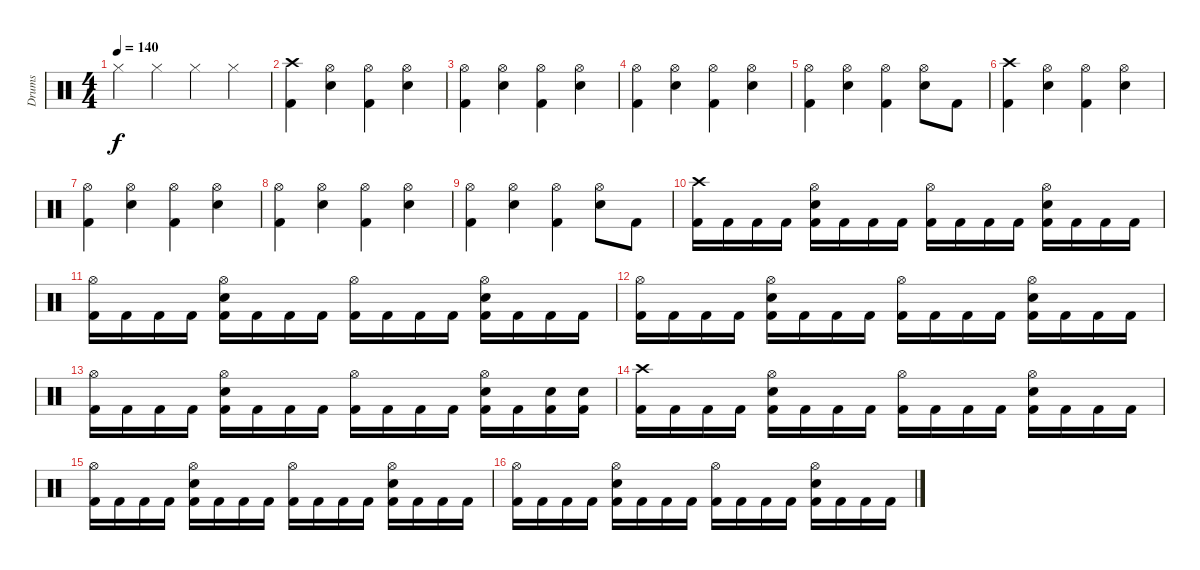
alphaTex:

\track ("Drums" "Drums") {instrument percussion}
\staff {score}
\articulation defaults
\ts (4 4)
\tempo 140
\clef neutral
\ks c "Hi-Hat (closed)".4{dy f} "Hi-Hat (closed)".4 "Hi-Hat (closed)".4 "Hi-Hat (closed)".4
|
("Kick (hit) 2" "Crash high (hit)").4 ("Electric Snare (hit)" "Hi-Hat (open)").4 ("Kick (hit) 2" "Hi-Hat (open)").4 ("Electric Snare (hit)" "Hi-Hat (open)").4 |
("Kick (hit) 2" "Hi-Hat (open)").4 ("Electric Snare (hit)" "Hi-Hat (open)").4 ("Kick (hit) 2" "Hi-Hat (open)").4 ("Electric Snare (hit)" "Hi-Hat (open)").4 |
("Kick (hit) 2" "Hi-Hat (open)").4 ("Electric Snare (hit)" "Hi-Hat (open)").4 ("Kick (hit) 2" "Hi-Hat (open)").4 ("Electric Snare (hit)" "Hi-Hat (open)").4 |
("Kick (hit) 2" "Hi-Hat (open)").4 ("Electric Snare (hit)" "Hi-Hat (open)").4 ("Kick (hit) 2" "Hi-Hat (open)").4 ("Electric Snare (hit)" "Hi-Hat (open)").8 "Kick (hit) 2".8 |
("Kick (hit) 2" "Crash high (hit)").4 ("Electric Snare (hit)" "Hi-Hat (open)").4 ("Kick (hit) 2" "Hi-Hat (open)").4 ("Electric Snare (hit)" "Hi-Hat (open)").4 |
("Kick (hit) 2" "Hi-Hat (open)").4 ("Electric Snare (hit)" "Hi-Hat (open)").4 ("Kick (hit) 2" "Hi-Hat (open)").4 ("Electric Snare (hit)" "Hi-Hat (open)").4 |
("Kick (hit) 2" "Hi-Hat (open)").4 ("Electric Snare (hit)" "Hi-Hat (open)").4 ("Kick (hit) 2" "Hi-Hat (open)").4 ("Electric Snare (hit)" "Hi-Hat (open)").4 |
("Kick (hit) 2" "Hi-Hat (open)").4 ("Electric Snare (hit)" "Hi-Hat (open)").4 ("Kick (hit) 2" "Hi-Hat (open)").4 ("Electric Snare (hit)" "Hi-Hat (open)").8 "Kick (hit) 2".8 |
("Kick (hit) 2" "Crash high (hit)").16 "Kick (hit) 2".16 "Kick (hit) 2".16 "Kick (hit) 2".16 ("Kick (hit) 2" "Electric Snare (hit)" "Hi-Hat (open)").16 "Kick (hit) 2".16 "Kick (hit) 2".16 "Kick (hit) 2".16 ("Kick (hit) 2" "Hi-Hat (open)").16 "Kick (hit) 2".16 "Kick (hit) 2".16 "Kick (hit) 2".16 ("Kick (hit) 2" "Electric Snare (hit)" "Hi-Hat (open)").16 "Kick (hit) 2".16 "Kick (hit) 2".16 "Kick (hit) 2".16 |
("Kick (hit) 2" "Hi-Hat (open)").16 "Kick (hit) 2".16 "Kick (hit) 2".16 "Kick (hit) 2".16 ("Kick (hit) 2" "Electric Snare (hit)" "Hi-Hat (open)").16 "Kick (hit) 2".16 "Kick (hit) 2".16 "Kick (hit) 2".16 ("Kick (hit) 2" "Hi-Hat (open)").16 "Kick (hit) 2".16 "Kick (hit) 2".16 "Kick (hit) 2".16 ("Kick (hit) 2" "Electric Snare (hit)" "Hi-Hat (open)").16 "Kick (hit) 2".16 "Kick (hit) 2".16 "Kick (hit) 2".16 |
("Kick (hit) 2" "Hi-Hat (open)").16 "Kick (hit) 2".16 "Kick (hit) 2".16 "Kick (hit) 2".16 ("Kick (hit) 2" "Electric Snare (hit)" "Hi-Hat (open)").16 "Kick (hit) 2".16 "Kick (hit) 2".16 "Kick (hit) 2".16 ("Kick (hit) 2" "Hi-Hat (open)").16 "Kick (hit) 2".16 "Kick (hit) 2".16 "Kick (hit) 2".16 ("Kick (hit) 2" "Electric Snare (hit)" "Hi-Hat (open)").16 "Kick (hit) 2".16 "Kick (hit) 2".16 "Kick (hit) 2".16 |
("Kick (hit) 2" "Hi-Hat (open)").16 "Kick (hit) 2".16 "Kick (hit) 2".16 "Kick (hit) 2".16 ("Kick (hit) 2" "Electric Snare (hit)" "Hi-Hat (open)").16 "Kick (hit) 2".16 "Kick (hit) 2".16 "Kick (hit) 2".16 ("Kick (hit) 2" "Hi-Hat (open)").16 "Kick (hit) 2".16 "Kick (hit) 2".16 "Kick (hit) 2".16 ("Kick (hit) 2" "Electric Snare (hit)" "Hi-Hat (open)").16 "Kick (hit) 2".16 ("Kick (hit) 2" "Electric Snare (hit)").16 ("Kick (hit) 2" "Electric Snare (hit)").16 |
("Kick (hit) 2" "Crash high (hit)").16 "Kick (hit) 2".16 "Kick (hit) 2".16 "Kick (hit) 2".16 ("Kick (hit) 2" "Electric Snare (hit)" "Hi-Hat (open)").16 "Kick (hit) 2".16 "Kick (hit) 2".16 "Kick (hit) 2".16 ("Kick (hit) 2" "Hi-Hat (open)").16 "Kick (hit) 2".16 "Kick (hit) 2".16 "Kick (hit) 2".16 ("Kick (hit) 2" "Electric Snare (hit)" "Hi-Hat (open)").16 "Kick (hit) 2".16 "Kick (hit) 2".16 "Kick (hit) 2".16 |
("Kick (hit) 2" "Hi-Hat (open)").16 "Kick (hit) 2".16 "Kick (hit) 2".16 "Kick (hit) 2".16 ("Kick (hit) 2" "Electric Snare (hit)" "Hi-Hat (open)").16 "Kick (hit) 2".16 "Kick (hit) 2".16 "Kick (hit) 2".16 ("Kick (hit) 2" "Hi-Hat (open)").16 "Kick (hit) 2".16 "Kick (hit) 2".16 "Kick (hit) 2".16 ("Kick (hit) 2" "Electric Snare (hit)" "Hi-Hat (open)").16 "Kick (hit) 2".16 "Kick (hit) 2".16 "Kick (hit) 2".16 |
("Kick (hit) 2" "Hi-Hat (open)").16 "Kick (hit) 2".16 "Kick (hit) 2".16 "Kick (hit) 2".16 ("Kick (hit) 2" "Electric Snare (hit)" "Hi-Hat (open)").16 "Kick (hit) 2".16 "Kick (hit) 2".16 "Kick (hit) 2".16 ("Kick (hit) 2" "Hi-Hat (open)").16 "Kick (hit) 2".16 "Kick (hit) 2".16 "Kick (hit) 2".16 ("Kick (hit) 2" "Electric Snare (hit)" "Hi-Hat (open)").16 "Kick (hit) 2".16 "Kick (hit) 2".16 "Kick (hit) 2".16
